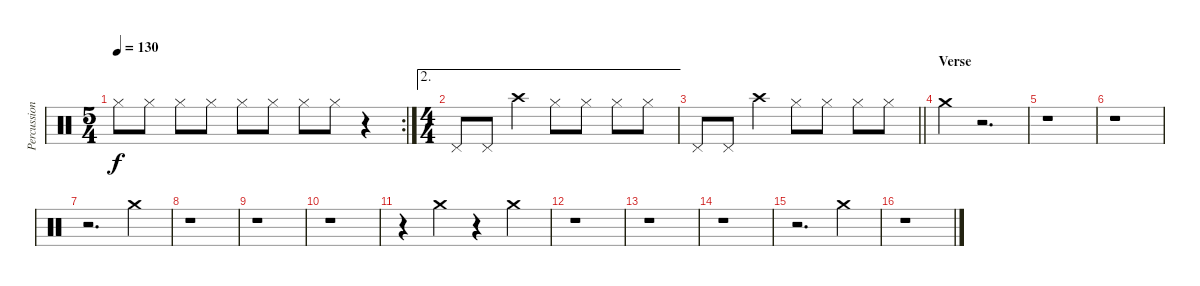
\track ("Percussion 2" "Percussion") {instrument percussion}
\staff {score}
\articulation defaults
\rc 2
\ts (5 4)
\tempo 130
\clef neutral
\ks c "Hi-Hat (closed)".8{dy f} "Hi-Hat (closed)".8 "Hi-Hat (closed)".8 "Hi-Hat (closed)".8 "Hi-Hat (closed)".8 "Hi-Hat (closed)".8 "Hi-Hat (closed)".8 "Hi-Hat (closed)".8
r.4 |
\ae 2
\ts (4 4)
"Pedal Hi-Hat (hit)".8 "Pedal Hi-Hat (hit)".8 "Crash high (hit)".4 "Hi-Hat (closed)".8 "Hi-Hat (closed)".8 "Hi-Hat (closed)".8 "Hi-Hat (closed)".8 |
\barLineRight lightlight "Pedal Hi-Hat (hit)".8 "Pedal Hi-Hat (hit)".8 "Crash high (hit)".4 "Hi-Hat (closed)".8 "Hi-Hat (closed)".8 "Hi-Hat (closed)".8 "Hi-Hat (closed)".8
|
\section ("" "Verse")
"Crash medium (hit)".4 r.2{d} |
r.1 |
r.1 |
r.2{d} "Crash medium (hit)".4 |
r.1 |
r.1 |
r.1 |
r.4 "Crash medium (hit)".4 r.4 "Crash medium (hit)".4 |
r.1 |
r.1 |
r.1 |
r.2{d} "Crash medium (hit)".4 |
r.1
